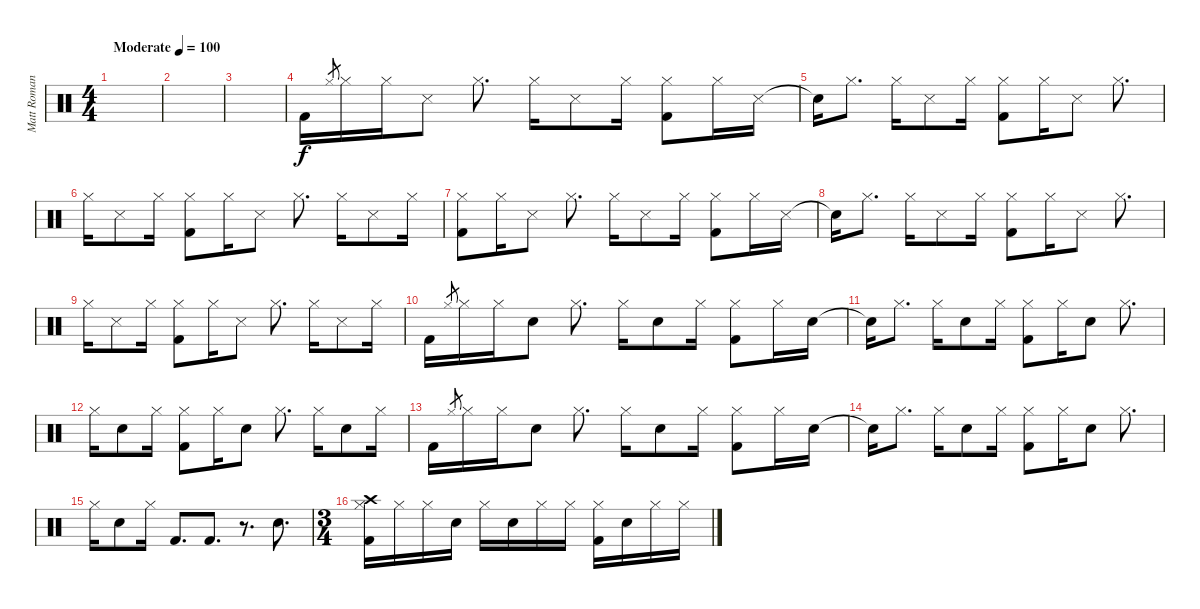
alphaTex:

\track ("Matt Romano" "Matt Roman") {instrument percussion}
\staff {score}
\articulation defaults
\ts (4 4)
\tempo (100 "Moderate")
\clef neutral
\ks c
|
|
|
"Kick (hit) 2".16 "Hi-Hat (closed)".8{gr} "Hi-Hat (closed)".16 "Hi-Hat (closed)".16 "Snare (side stick) 3".8 "Hi-Hat (closed)".8{d} "Hi-Hat (closed)".16 "Snare (side stick) 3".8 "Hi-Hat (closed)".16 ("Hi-Hat (closed)" "Kick (hit) 2").8 "Hi-Hat (closed)".16 "Snare (side stick) 3".16 |
"Snare (hit)"{t}.16 "Hi-Hat (closed)".8{d} "Hi-Hat (closed)".16 "Snare (side stick) 3".8 "Hi-Hat (closed)".16 ("Hi-Hat (closed)" "Kick (hit) 2").8 "Hi-Hat (closed)".16 "Snare (side stick) 3".8 "Hi-Hat (closed)".8{d} |
"Hi-Hat (closed)".16 "Snare (side stick) 3".8 "Hi-Hat (closed)".16 ("Hi-Hat (closed)" "Kick (hit) 2").8 "Hi-Hat (closed)".16 "Snare (side stick) 3".8 "Hi-Hat (closed)".8{d} "Hi-Hat (closed)".16 "Snare (side stick) 3".8 "Hi-Hat (closed)".16 |
("Hi-Hat (closed)" "Kick (hit) 2").8 "Hi-Hat (closed)".16 "Snare (side stick) 3".8 "Hi-Hat (closed)".8{d} "Hi-Hat (closed)".16 "Snare (side stick) 3".8 "Hi-Hat (closed)".16 ("Hi-Hat (closed)" "Kick (hit) 2").8 "Hi-Hat (closed)".16 "Snare (side stick) 3".16 |
"Snare (hit)"{t}.16 "Hi-Hat (closed)".8{d} "Hi-Hat (closed)".16 "Snare (side stick) 3".8 "Hi-Hat (closed)".16 ("Hi-Hat (closed)" "Kick (hit) 2").8 "Hi-Hat (closed)".16 "Snare (side stick) 3".8 "Hi-Hat (closed)".8{d} |
"Hi-Hat (closed)".16 "Snare (side stick) 3".8 "Hi-Hat (closed)".16 ("Hi-Hat (closed)" "Kick (hit) 2").8 "Hi-Hat (closed)".16 "Snare (side stick) 3".8 "Hi-Hat (closed)".8{d} "Hi-Hat (closed)".16 "Snare (side stick) 3".8 "Hi-Hat (closed)".16 |
"Kick (hit) 2".16 "Hi-Hat (closed)".8{gr} "Hi-Hat (closed)".16 "Hi-Hat (closed)".16 "Snare (hit) 2".8 "Hi-Hat (closed)".8{d} "Hi-Hat (closed)".16 "Snare (hit) 2".8 "Hi-Hat (closed)".16 ("Hi-Hat (closed)" "Kick (hit) 2").8 "Hi-Hat (closed)".16 "Snare (hit) 2".16 |
"Snare (hit)"{t}.16 "Hi-Hat (closed)".8{d} "Hi-Hat (closed)".16 "Snare (hit) 2".8 "Hi-Hat (closed)".16 ("Hi-Hat (closed)" "Kick (hit) 2").8 "Hi-Hat (closed)".16 "Snare (hit) 2".8 "Hi-Hat (closed)".8{d} |
"Hi-Hat (closed)".16 "Snare (hit) 2".8 "Hi-Hat (closed)".16 ("Hi-Hat (closed)" "Kick (hit) 2").8 "Hi-Hat (closed)".16 "Snare (hit) 2".8 "Hi-Hat (closed)".8{d} "Hi-Hat (closed)".16 "Snare (hit) 2".8 "Hi-Hat (closed)".16 |
"Kick (hit) 2".16 "Hi-Hat (closed)".8{gr} "Hi-Hat (closed)".16 "Hi-Hat (closed)".16 "Snare (hit) 2".8 "Hi-Hat (closed)".8{d} "Hi-Hat (closed)".16 "Snare (hit) 2".8 "Hi-Hat (closed)".16 ("Hi-Hat (closed)" "Kick (hit) 2").8 "Hi-Hat (closed)".16 "Snare (hit) 2".16 |
"Snare (hit)"{t}.16 "Hi-Hat (closed)".8{d} "Hi-Hat (closed)".16 "Snare (hit) 2".8 "Hi-Hat (closed)".16 ("Hi-Hat (closed)" "Kick (hit) 2").8 "Hi-Hat (closed)".16 "Snare (hit) 2".8 "Hi-Hat (closed)".8{d} |
"Hi-Hat (closed)".16 "Snare (hit) 2".8 "Hi-Hat (closed)".16 "Kick (hit) 2".8{d} "Kick (hit) 2".8{d} r.8{d} "Snare (hit) 2".8{d} |
\ts (3 4)
("Crash high (hit)" "Hi-Hat (closed)" "Kick (hit) 2").16 "Hi-Hat (closed)".16 "Hi-Hat (closed)".16 "Snare (hit) 2".16 "Hi-Hat (closed)".16 "Snare (hit) 2".16 "Hi-Hat (closed)".16 "Hi-Hat (closed)".16 ("Hi-Hat (closed)" "Kick (hit) 2").16 "Snare (hit) 2".16 "Hi-Hat (closed)".16 "Hi-Hat (closed)".16
